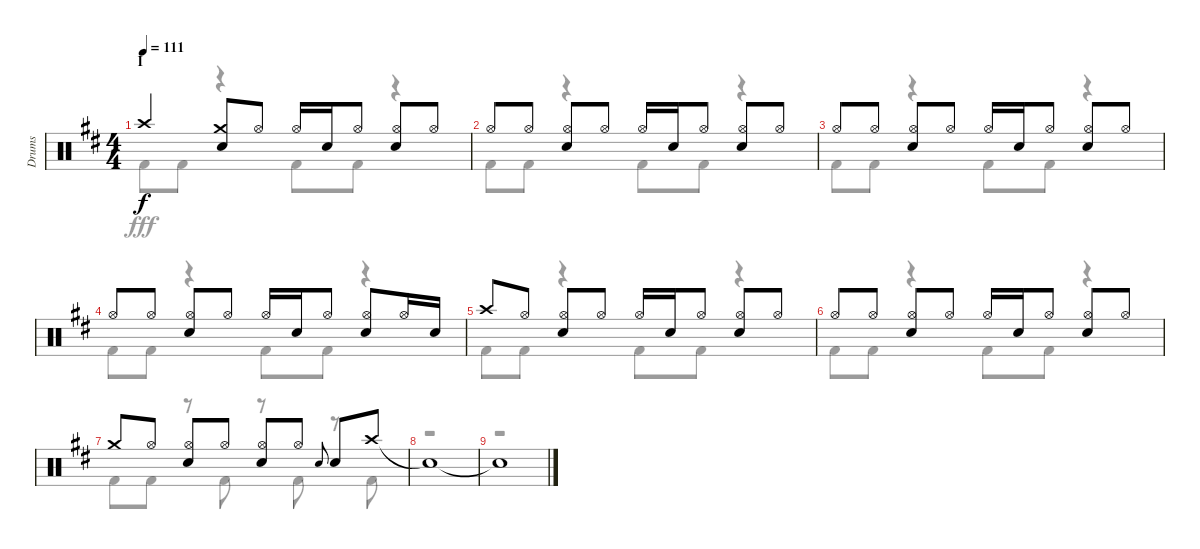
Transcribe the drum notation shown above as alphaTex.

\track ("Drums" "Drums") {instrument percussion}
\staff {score}
\articulation defaults
\voice
\ts (4 4)
\section ("" "I")
\tempo 111
\clef neutral
\ks d "Crash high (hit)".4{dy f}
("Crash medium (hit)" "Snare (hit) 2").8 "Hi-Hat (open)".8 "Hi-Hat (open)".16 "Snare (hit) 2".16 "Hi-Hat (open)".8 ("Hi-Hat (open)" "Snare (hit) 2").8 "Hi-Hat (open)".8 |
"Hi-Hat (open)".8 "Hi-Hat (open)".8 ("Hi-Hat (open)" "Snare (hit) 2").8 "Hi-Hat (open)".8 "Hi-Hat (open)".16 "Snare (hit) 2".16 "Hi-Hat (open)".8 ("Hi-Hat (open)" "Snare (hit) 2").8 "Hi-Hat (open)".8 |
"Hi-Hat (open)".8 "Hi-Hat (open)".8 ("Hi-Hat (open)" "Snare (hit) 2").8 "Hi-Hat (open)".8 "Hi-Hat (open)".16 "Snare (hit) 2".16 "Hi-Hat (open)".8 ("Hi-Hat (open)" "Snare (hit) 2").8 "Hi-Hat (open)".8 |
"Hi-Hat (open)".8 "Hi-Hat (open)".8 ("Hi-Hat (open)" "Snare (hit) 2").8 "Hi-Hat (open)".8 "Hi-Hat (open)".16 "Snare (hit) 2".16 "Hi-Hat (open)".8 ("Hi-Hat (open)" "Snare (hit) 2").8 "Hi-Hat (open)".16 "Snare (hit) 2".16 |
"Crash high (hit)".8 "Hi-Hat (open)".8 ("Hi-Hat (open)" "Snare (hit) 2").8 "Hi-Hat (open)".8 "Hi-Hat (open)".16 "Snare (hit) 2".16 "Hi-Hat (open)".8 ("Hi-Hat (open)" "Snare (hit) 2").8 "Hi-Hat (open)".8 |
"Hi-Hat (open)".8 "Hi-Hat (open)".8 ("Hi-Hat (open)" "Snare (hit) 2").8 "Hi-Hat (open)".8 "Hi-Hat (open)".16 "Snare (hit) 2".16 "Hi-Hat (open)".8 ("Hi-Hat (open)" "Snare (hit) 2").8 "Hi-Hat (open)".8 |
"Crash medium (hit)".8 "Hi-Hat (open)".8 ("Hi-Hat (open)" "Snare (hit) 2").8 "Hi-Hat (open)".8 ("Hi-Hat (open)" "Snare (hit) 2").8 "Hi-Hat (open)".8 "Snare (hit) 2".8{gr onbeat} "Snare (hit) 2".8 "Crash high (hit)".8 |
"Snare (hit)"{t}.1 |
"Snare (hit)"{t}.1
\voice
\clef neutral
\ottava regular
\simile none
\ks d "Kick (hit) 2".8{dy fff} "Kick (hit) 2".8
r.4 "Kick (hit) 2".8 "Kick (hit) 2".8 r.4 |
"Kick (hit) 2".8 "Kick (hit) 2".8 r.4 "Kick (hit) 2".8 "Kick (hit) 2".8 r.4 |
"Kick (hit) 2".8 "Kick (hit) 2".8 r.4 "Kick (hit) 2".8 "Kick (hit) 2".8 r.4 |
"Kick (hit) 2".8 "Kick (hit) 2".8 r.4 "Kick (hit) 2".8 "Kick (hit) 2".8 r.4 |
"Kick (hit) 2".8 "Kick (hit) 2".8 r.4 "Kick (hit) 2".8 "Kick (hit) 2".8 r.4 |
"Kick (hit) 2".8 "Kick (hit) 2".8 r.4 "Kick (hit) 2".8 "Kick (hit) 2".8 r.4 |
"Kick (hit) 2".8 "Kick (hit) 2".8 r.8 "Kick (hit) 2".8 r.8 "Kick (hit) 2".8 r.8 "Kick (hit) 2".8 |
r.1 |
r.1
